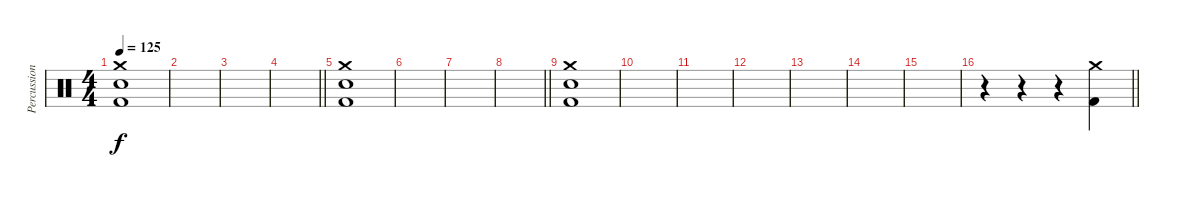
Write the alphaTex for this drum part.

\track ("Percussion" "Percussion") {instrument percussion}
\staff {score}
\articulation defaults
\ts (4 4)
\tempo 125
\clef neutral
\ks c
("Crash medium (hit)" "Snare (hit) 2" "Kick (hit) 2").1{dy f} |
|
|
\barLineRight lightlight
|
("Crash medium (hit)" "Snare (hit) 2" "Kick (hit) 2").1 |
|
|
\barLineRight lightlight
|
("Crash medium (hit)" "Snare (hit) 2" "Kick (hit) 2").1 |
|
|
|
|
|
|
\barLineRight lightlight
r.4 r.4 r.4 ("Crash medium (hit)" "Kick (hit) 2").4
